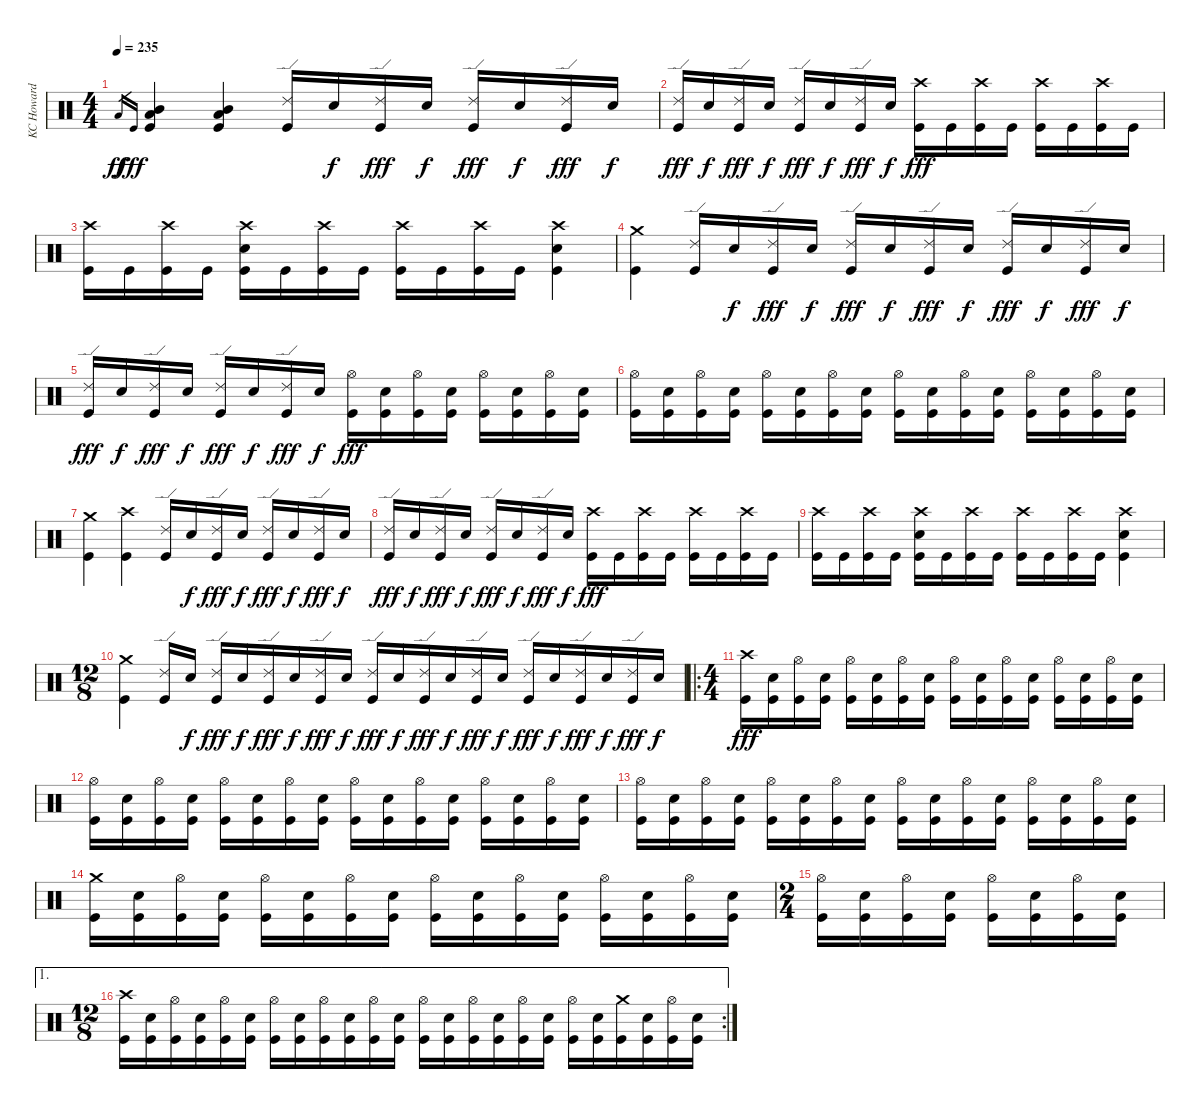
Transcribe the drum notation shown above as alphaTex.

\track ("KC Howard" "KC Howard") {instrument percussion}
\staff {score}
\articulation defaults
\ts (4 4)
\tempo 235
\clef neutral
\ks c "Low Tom (hit)".16{gr dy ff} "Kick (hit)".16{gr dy fff}
("Low Tom (hit)" "Mid Tom (hit)" "Kick (hit)").4 ("Low Tom (hit)" "Mid Tom (hit)" "Kick (hit)").4 ("Ride (edge) 2" "Kick (hit)").16 "Electric Snare (hit)".16{dy f} ("Ride (edge) 2" "Kick (hit)").16{dy fff} "Electric Snare (hit)".16{dy f} ("Ride (edge) 2" "Kick (hit)").16{dy fff} "Electric Snare (hit)".16{dy f} ("Ride (edge) 2" "Kick (hit)").16{dy fff} "Electric Snare (hit)".16{dy f} |
("Ride (edge) 2" "Kick (hit)").16{dy fff} "Electric Snare (hit)".16{dy f} ("Ride (edge) 2" "Kick (hit)").16{dy fff} "Electric Snare (hit)".16{dy f} ("Ride (edge) 2" "Kick (hit)").16{dy fff} "Electric Snare (hit)".16{dy f} ("Ride (edge) 2" "Kick (hit)").16{dy fff} "Electric Snare (hit)".16{dy f} ("Crash high (hit)" "Kick (hit)").16{dy fff} "Kick (hit)".16 ("Crash high (hit)" "Kick (hit)").16 "Kick (hit)".16 ("Crash high (hit)" "Kick (hit)").16 "Kick (hit)".16 ("Crash high (hit)" "Kick (hit)").16 "Kick (hit)".16 |
("Crash high (hit)" "Kick (hit)").16 "Kick (hit)".16 ("Crash high (hit)" "Kick (hit)").16 "Kick (hit)".16 ("Crash high (hit)" "Electric Snare (hit)" "Kick (hit)").16 "Kick (hit)".16 ("Crash high (hit)" "Kick (hit)").16 "Kick (hit)".16 ("Crash high (hit)" "Kick (hit)").16 "Kick (hit)".16 ("Crash high (hit)" "Kick (hit)").16 "Kick (hit)".16 ("Crash high (hit)" "Electric Snare (hit)" "Kick (hit)").4 |
("Crash medium (hit)" "Kick (hit)").4 ("Ride (edge) 2" "Kick (hit)").16 "Electric Snare (hit)".16{dy f} ("Ride (edge) 2" "Kick (hit)").16{dy fff} "Electric Snare (hit)".16{dy f} ("Ride (edge) 2" "Kick (hit)").16{dy fff} "Electric Snare (hit)".16{dy f} ("Ride (edge) 2" "Kick (hit)").16{dy fff} "Electric Snare (hit)".16{dy f} ("Ride (edge) 2" "Kick (hit)").16{dy fff} "Electric Snare (hit)".16{dy f} ("Ride (edge) 2" "Kick (hit)").16{dy fff} "Electric Snare (hit)".16{dy f} |
("Ride (edge) 2" "Kick (hit)").16{dy fff} "Electric Snare (hit)".16{dy f} ("Ride (edge) 2" "Kick (hit)").16{dy fff} "Electric Snare (hit)".16{dy f} ("Ride (edge) 2" "Kick (hit)").16{dy fff} "Electric Snare (hit)".16{dy f} ("Ride (edge) 2" "Kick (hit)").16{dy fff} "Electric Snare (hit)".16{dy f} ("Hi-Hat (open)" "Kick (hit)").16{dy fff} ("Electric Snare (hit)" "Kick (hit)").16 ("Hi-Hat (open)" "Kick (hit)").16 ("Electric Snare (hit)" "Kick (hit)").16 ("Hi-Hat (open)" "Kick (hit)").16 ("Electric Snare (hit)" "Kick (hit)").16 ("Hi-Hat (open)" "Kick (hit)").16 ("Electric Snare (hit)" "Kick (hit)").16 |
("Hi-Hat (open)" "Kick (hit)").16 ("Electric Snare (hit)" "Kick (hit)").16 ("Hi-Hat (open)" "Kick (hit)").16 ("Electric Snare (hit)" "Kick (hit)").16 ("Hi-Hat (open)" "Kick (hit)").16 ("Electric Snare (hit)" "Kick (hit)").16 ("Hi-Hat (open)" "Kick (hit)").16 ("Electric Snare (hit)" "Kick (hit)").16 ("Hi-Hat (open)" "Kick (hit)").16 ("Electric Snare (hit)" "Kick (hit)").16 ("Hi-Hat (open)" "Kick (hit)").16 ("Electric Snare (hit)" "Kick (hit)").16 ("Hi-Hat (open)" "Kick (hit)").16 ("Electric Snare (hit)" "Kick (hit)").16 ("Hi-Hat (open)" "Kick (hit)").16 ("Electric Snare (hit)" "Kick (hit)").16 |
("Crash medium (hit)" "Kick (hit)").4 ("Crash high (hit)" "Kick (hit)").4 ("Ride (edge) 2" "Kick (hit)").16 "Electric Snare (hit)".16{dy f} ("Ride (edge) 2" "Kick (hit)").16{dy fff} "Electric Snare (hit)".16{dy f} ("Ride (edge) 2" "Kick (hit)").16{dy fff} "Electric Snare (hit)".16{dy f} ("Ride (edge) 2" "Kick (hit)").16{dy fff} "Electric Snare (hit)".16{dy f} |
("Ride (edge) 2" "Kick (hit)").16{dy fff} "Electric Snare (hit)".16{dy f} ("Ride (edge) 2" "Kick (hit)").16{dy fff} "Electric Snare (hit)".16{dy f} ("Ride (edge) 2" "Kick (hit)").16{dy fff} "Electric Snare (hit)".16{dy f} ("Ride (edge) 2" "Kick (hit)").16{dy fff} "Electric Snare (hit)".16{dy f} ("Crash high (hit)" "Kick (hit)").16{dy fff} "Kick (hit)".16 ("Crash high (hit)" "Kick (hit)").16 "Kick (hit)".16 ("Crash high (hit)" "Kick (hit)").16 "Kick (hit)".16 ("Crash high (hit)" "Kick (hit)").16 "Kick (hit)".16 |
("Crash high (hit)" "Kick (hit)").16 "Kick (hit)".16 ("Crash high (hit)" "Kick (hit)").16 "Kick (hit)".16 ("Crash high (hit)" "Electric Snare (hit)" "Kick (hit)").16 "Kick (hit)".16 ("Crash high (hit)" "Kick (hit)").16 "Kick (hit)".16 ("Crash high (hit)" "Kick (hit)").16 "Kick (hit)".16 ("Crash high (hit)" "Kick (hit)").16 "Kick (hit)".16 ("Crash high (hit)" "Electric Snare (hit)" "Kick (hit)").4 |
\ts (12 8)
("Crash medium (hit)" "Kick (hit)").4 ("Ride (edge) 2" "Kick (hit)").16 "Electric Snare (hit)".16{dy f} ("Ride (edge) 2" "Kick (hit)").16{dy fff} "Electric Snare (hit)".16{dy f} ("Ride (edge) 2" "Kick (hit)").16{dy fff} "Electric Snare (hit)".16{dy f} ("Ride (edge) 2" "Kick (hit)").16{dy fff} "Electric Snare (hit)".16{dy f} ("Ride (edge) 2" "Kick (hit)").16{dy fff} "Electric Snare (hit)".16{dy f} ("Ride (edge) 2" "Kick (hit)").16{dy fff} "Electric Snare (hit)".16{dy f} ("Ride (edge) 2" "Kick (hit)").16{dy fff} "Electric Snare (hit)".16{dy f} ("Ride (edge) 2" "Kick (hit)").16{dy fff} "Electric Snare (hit)".16{dy f} ("Ride (edge) 2" "Kick (hit)").16{dy fff} "Electric Snare (hit)".16{dy f} ("Ride (edge) 2" "Kick (hit)").16{dy fff} "Electric Snare (hit)".16{dy f} |
\ro
\ts (4 4)
("Crash high (hit)" "Kick (hit)").16{dy fff} ("Electric Snare (hit)" "Kick (hit)").16 ("Hi-Hat (open)" "Kick (hit)").16 ("Electric Snare (hit)" "Kick (hit)").16 ("Hi-Hat (open)" "Kick (hit)").16 ("Electric Snare (hit)" "Kick (hit)").16 ("Hi-Hat (open)" "Kick (hit)").16 ("Electric Snare (hit)" "Kick (hit)").16 ("Hi-Hat (open)" "Kick (hit)").16 ("Electric Snare (hit)" "Kick (hit)").16 ("Hi-Hat (open)" "Kick (hit)").16 ("Electric Snare (hit)" "Kick (hit)").16 ("Hi-Hat (open)" "Kick (hit)").16 ("Electric Snare (hit)" "Kick (hit)").16 ("Hi-Hat (open)" "Kick (hit)").16 ("Electric Snare (hit)" "Kick (hit)").16 |
("Hi-Hat (open)" "Kick (hit)").16 ("Electric Snare (hit)" "Kick (hit)").16 ("Hi-Hat (open)" "Kick (hit)").16 ("Electric Snare (hit)" "Kick (hit)").16 ("Hi-Hat (open)" "Kick (hit)").16 ("Electric Snare (hit)" "Kick (hit)").16 ("Hi-Hat (open)" "Kick (hit)").16 ("Electric Snare (hit)" "Kick (hit)").16 ("Hi-Hat (open)" "Kick (hit)").16 ("Electric Snare (hit)" "Kick (hit)").16 ("Hi-Hat (open)" "Kick (hit)").16 ("Electric Snare (hit)" "Kick (hit)").16 ("Hi-Hat (open)" "Kick (hit)").16 ("Electric Snare (hit)" "Kick (hit)").16 ("Hi-Hat (open)" "Kick (hit)").16 ("Electric Snare (hit)" "Kick (hit)").16 |
("Hi-Hat (open)" "Kick (hit)").16 ("Electric Snare (hit)" "Kick (hit)").16 ("Hi-Hat (open)" "Kick (hit)").16 ("Electric Snare (hit)" "Kick (hit)").16 ("Hi-Hat (open)" "Kick (hit)").16 ("Electric Snare (hit)" "Kick (hit)").16 ("Hi-Hat (open)" "Kick (hit)").16 ("Electric Snare (hit)" "Kick (hit)").16 ("Hi-Hat (open)" "Kick (hit)").16 ("Electric Snare (hit)" "Kick (hit)").16 ("Hi-Hat (open)" "Kick (hit)").16 ("Electric Snare (hit)" "Kick (hit)").16 ("Hi-Hat (open)" "Kick (hit)").16 ("Electric Snare (hit)" "Kick (hit)").16 ("Hi-Hat (open)" "Kick (hit)").16 ("Electric Snare (hit)" "Kick (hit)").16 |
("Crash medium (hit)" "Kick (hit)").16 ("Electric Snare (hit)" "Kick (hit)").16 ("Hi-Hat (open)" "Kick (hit)").16 ("Electric Snare (hit)" "Kick (hit)").16 ("Hi-Hat (open)" "Kick (hit)").16 ("Electric Snare (hit)" "Kick (hit)").16 ("Hi-Hat (open)" "Kick (hit)").16 ("Electric Snare (hit)" "Kick (hit)").16 ("Hi-Hat (open)" "Kick (hit)").16 ("Electric Snare (hit)" "Kick (hit)").16 ("Hi-Hat (open)" "Kick (hit)").16 ("Electric Snare (hit)" "Kick (hit)").16 ("Hi-Hat (open)" "Kick (hit)").16 ("Electric Snare (hit)" "Kick (hit)").16 ("Hi-Hat (open)" "Kick (hit)").16 ("Electric Snare (hit)" "Kick (hit)").16 |
\ts (2 4)
("Hi-Hat (open)" "Kick (hit)").16 ("Electric Snare (hit)" "Kick (hit)").16 ("Hi-Hat (open)" "Kick (hit)").16 ("Electric Snare (hit)" "Kick (hit)").16 ("Hi-Hat (open)" "Kick (hit)").16 ("Electric Snare (hit)" "Kick (hit)").16 ("Hi-Hat (open)" "Kick (hit)").16 ("Electric Snare (hit)" "Kick (hit)").16 |
\ae 1
\rc 2
\ts (12 8)
("Crash high (hit)" "Kick (hit)").16 ("Electric Snare (hit)" "Kick (hit)").16 ("Hi-Hat (open)" "Kick (hit)").16 ("Electric Snare (hit)" "Kick (hit)").16 ("Hi-Hat (open)" "Kick (hit)").16 ("Electric Snare (hit)" "Kick (hit)").16 ("Hi-Hat (open)" "Kick (hit)").16 ("Electric Snare (hit)" "Kick (hit)").16 ("Hi-Hat (open)" "Kick (hit)").16 ("Electric Snare (hit)" "Kick (hit)").16 ("Hi-Hat (open)" "Kick (hit)").16 ("Electric Snare (hit)" "Kick (hit)").16 ("Hi-Hat (open)" "Kick (hit)").16 ("Electric Snare (hit)" "Kick (hit)").16 ("Hi-Hat (open)" "Kick (hit)").16 ("Electric Snare (hit)" "Kick (hit)").16 ("Hi-Hat (open)" "Kick (hit)").16 ("Electric Snare (hit)" "Kick (hit)").16 ("Hi-Hat (open)" "Kick (hit)").16 ("Electric Snare (hit)" "Kick (hit)").16 ("Crash medium (hit)" "Kick (hit)").16 ("Electric Snare (hit)" "Kick (hit)").16 ("Hi-Hat (open)" "Kick (hit)").16 ("Electric Snare (hit)" "Kick (hit)").16
